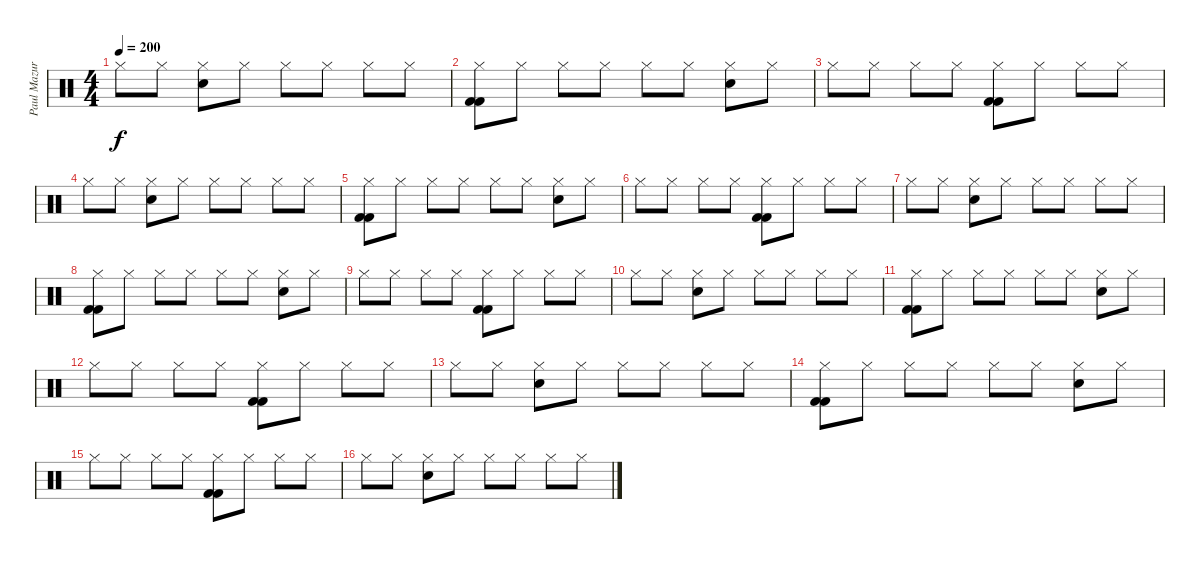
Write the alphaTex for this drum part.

\track ("Paul Mazurkiewicz" "Paul Mazur") {instrument percussion}
\staff {score}
\articulation defaults
\ts (4 4)
\tempo 200
\clef neutral
\ks c "Hi-Hat (closed)".8{dy f} "Hi-Hat (closed)".8
("Hi-Hat (closed)" "Electric Snare (hit)").8 "Hi-Hat (closed)".8 "Hi-Hat (closed)".8 "Hi-Hat (closed)".8 "Hi-Hat (closed)".8 "Hi-Hat (closed)".8 |
("Hi-Hat (closed)" "Kick (hit) 2" "Kick (hit) 2").8 "Hi-Hat (closed)".8 "Hi-Hat (closed)".8 "Hi-Hat (closed)".8 "Hi-Hat (closed)".8 "Hi-Hat (closed)".8 ("Hi-Hat (closed)" "Electric Snare (hit)").8 "Hi-Hat (closed)".8 |
"Hi-Hat (closed)".8 "Hi-Hat (closed)".8 "Hi-Hat (closed)".8 "Hi-Hat (closed)".8 ("Hi-Hat (closed)" "Kick (hit) 2" "Kick (hit) 2").8 "Hi-Hat (closed)".8 "Hi-Hat (closed)".8 "Hi-Hat (closed)".8 |
"Hi-Hat (closed)".8 "Hi-Hat (closed)".8 ("Hi-Hat (closed)" "Electric Snare (hit)").8 "Hi-Hat (closed)".8 "Hi-Hat (closed)".8 "Hi-Hat (closed)".8 "Hi-Hat (closed)".8 "Hi-Hat (closed)".8 |
("Hi-Hat (closed)" "Kick (hit) 2" "Kick (hit) 2").8 "Hi-Hat (closed)".8 "Hi-Hat (closed)".8 "Hi-Hat (closed)".8 "Hi-Hat (closed)".8 "Hi-Hat (closed)".8 ("Hi-Hat (closed)" "Electric Snare (hit)").8 "Hi-Hat (closed)".8 |
"Hi-Hat (closed)".8 "Hi-Hat (closed)".8 "Hi-Hat (closed)".8 "Hi-Hat (closed)".8 ("Hi-Hat (closed)" "Kick (hit) 2" "Kick (hit) 2").8 "Hi-Hat (closed)".8 "Hi-Hat (closed)".8 "Hi-Hat (closed)".8 |
"Hi-Hat (closed)".8 "Hi-Hat (closed)".8 ("Hi-Hat (closed)" "Electric Snare (hit)").8 "Hi-Hat (closed)".8 "Hi-Hat (closed)".8 "Hi-Hat (closed)".8 "Hi-Hat (closed)".8 "Hi-Hat (closed)".8 |
("Hi-Hat (closed)" "Kick (hit) 2" "Kick (hit) 2").8 "Hi-Hat (closed)".8 "Hi-Hat (closed)".8 "Hi-Hat (closed)".8 "Hi-Hat (closed)".8 "Hi-Hat (closed)".8 ("Hi-Hat (closed)" "Electric Snare (hit)").8 "Hi-Hat (closed)".8 |
"Hi-Hat (closed)".8 "Hi-Hat (closed)".8 "Hi-Hat (closed)".8 "Hi-Hat (closed)".8 ("Hi-Hat (closed)" "Kick (hit) 2" "Kick (hit) 2").8 "Hi-Hat (closed)".8 "Hi-Hat (closed)".8 "Hi-Hat (closed)".8 |
"Hi-Hat (closed)".8 "Hi-Hat (closed)".8 ("Hi-Hat (closed)" "Electric Snare (hit)").8 "Hi-Hat (closed)".8 "Hi-Hat (closed)".8 "Hi-Hat (closed)".8 "Hi-Hat (closed)".8 "Hi-Hat (closed)".8 |
("Hi-Hat (closed)" "Kick (hit) 2" "Kick (hit) 2").8 "Hi-Hat (closed)".8 "Hi-Hat (closed)".8 "Hi-Hat (closed)".8 "Hi-Hat (closed)".8 "Hi-Hat (closed)".8 ("Hi-Hat (closed)" "Electric Snare (hit)").8 "Hi-Hat (closed)".8 |
"Hi-Hat (closed)".8 "Hi-Hat (closed)".8 "Hi-Hat (closed)".8 "Hi-Hat (closed)".8 ("Hi-Hat (closed)" "Kick (hit) 2" "Kick (hit) 2").8 "Hi-Hat (closed)".8 "Hi-Hat (closed)".8 "Hi-Hat (closed)".8 |
"Hi-Hat (closed)".8 "Hi-Hat (closed)".8 ("Hi-Hat (closed)" "Electric Snare (hit)").8 "Hi-Hat (closed)".8 "Hi-Hat (closed)".8 "Hi-Hat (closed)".8 "Hi-Hat (closed)".8 "Hi-Hat (closed)".8 |
("Hi-Hat (closed)" "Kick (hit) 2" "Kick (hit) 2").8 "Hi-Hat (closed)".8 "Hi-Hat (closed)".8 "Hi-Hat (closed)".8 "Hi-Hat (closed)".8 "Hi-Hat (closed)".8 ("Hi-Hat (closed)" "Electric Snare (hit)").8 "Hi-Hat (closed)".8 |
"Hi-Hat (closed)".8 "Hi-Hat (closed)".8 "Hi-Hat (closed)".8 "Hi-Hat (closed)".8 ("Hi-Hat (closed)" "Kick (hit) 2" "Kick (hit) 2").8 "Hi-Hat (closed)".8 "Hi-Hat (closed)".8 "Hi-Hat (closed)".8 |
"Hi-Hat (closed)".8 "Hi-Hat (closed)".8 ("Hi-Hat (closed)" "Electric Snare (hit)").8 "Hi-Hat (closed)".8 "Hi-Hat (closed)".8 "Hi-Hat (closed)".8 "Hi-Hat (closed)".8 "Hi-Hat (closed)".8
